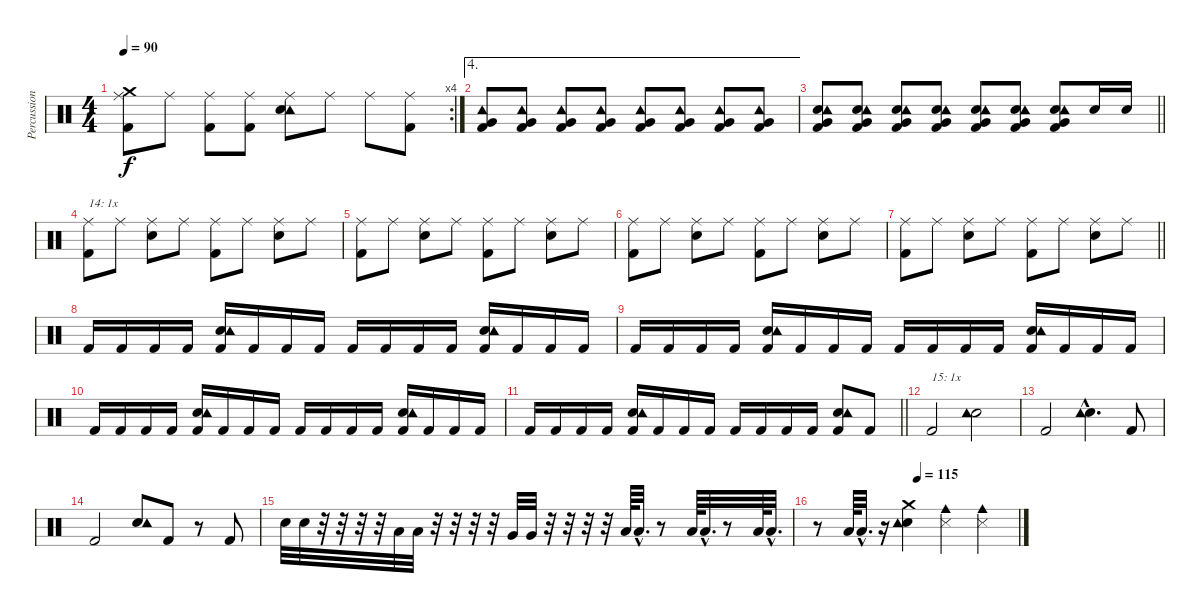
\track ("Percussion" "Percussion") {instrument percussion}
\staff {score}
\articulation defaults
\rc 4
\ts (4 4)
\tempo 90
\clef neutral
\ks c
("Crash medium (hit)" "Kick (hit) 2" "Ride (middle)").8{dy f} "Ride (middle)".8 ("Ride (middle)" "Kick (hit) 2").8 ("Ride (middle)" "Kick (hit) 2").8 ("Tambourine (hit)" "Electric Snare (hit)" "Ride (middle)").8 "Ride (middle)".8 "Ride (middle)".8 ("Kick (hit) 2" "Ride (middle)").8 |
\ae 4
("Kick (hit) 2" "Very Low Tom (hit)" "Tambourine (hit)").8 ("Kick (hit) 2" "Very Low Tom (hit)" "Tambourine (hit)").8 ("Kick (hit) 2" "Very Low Tom (hit)" "Tambourine (hit)").8 ("Kick (hit) 2" "Very Low Tom (hit)" "Tambourine (hit)").8 ("Kick (hit) 2" "Very Low Tom (hit)" "Tambourine (hit)").8 ("Kick (hit) 2" "Very Low Tom (hit)" "Tambourine (hit)").8 ("Kick (hit) 2" "Very Low Tom (hit)" "Tambourine (hit)").8 ("Kick (hit) 2" "Very Low Tom (hit)" "Tambourine (hit)").8 |
\barLineRight lightlight
("Very Low Tom (hit)" "Kick (hit) 2" "Electric Snare (hit)" "Tambourine (hit)").8 ("Very Low Tom (hit)" "Kick (hit) 2" "Electric Snare (hit)" "Tambourine (hit)").8 ("Very Low Tom (hit)" "Kick (hit) 2" "Electric Snare (hit)" "Tambourine (hit)").8 ("Very Low Tom (hit)" "Kick (hit) 2" "Electric Snare (hit)" "Tambourine (hit)").8 ("Very Low Tom (hit)" "Kick (hit) 2" "Electric Snare (hit)" "Tambourine (hit)").8 ("Very Low Tom (hit)" "Kick (hit) 2" "Electric Snare (hit)" "Tambourine (hit)").8 ("Very Low Tom (hit)" "Kick (hit) 2" "Electric Snare (hit)" "Tambourine (hit)").8 "Electric Snare (hit)".16 "Electric Snare (hit)".16 |
("Kick (hit) 2" "Ride (middle)").8{txt "14: 1x"} "Ride (middle)".8 ("Electric Snare (hit)" "Ride (middle)").8 "Ride (middle)".8 ("Kick (hit) 2" "Ride (middle)").8 "Ride (middle)".8 ("Electric Snare (hit)" "Ride (middle)").8 "Ride (middle)".8 |
("Kick (hit) 2" "Ride (middle)").8 "Ride (middle)".8 ("Electric Snare (hit)" "Ride (middle)").8 "Ride (middle)".8 ("Kick (hit) 2" "Ride (middle)").8 "Ride (middle)".8 ("Electric Snare (hit)" "Ride (middle)").8 "Ride (middle)".8 |
("Kick (hit) 2" "Ride (middle)").8 "Ride (middle)".8 ("Electric Snare (hit)" "Ride (middle)").8 "Ride (middle)".8 ("Kick (hit) 2" "Ride (middle)").8 "Ride (middle)".8 ("Electric Snare (hit)" "Ride (middle)").8 "Ride (middle)".8 |
\barLineRight lightlight
("Kick (hit) 2" "Ride (middle)").8 "Ride (middle)".8 ("Electric Snare (hit)" "Ride (middle)").8 "Ride (middle)".8 ("Kick (hit) 2" "Ride (middle)").8 "Ride (middle)".8 ("Electric Snare (hit)" "Ride (middle)").8 "Ride (middle)".8 |
"Kick (hit) 2".16 "Kick (hit) 2".16 "Kick (hit) 2".16 "Kick (hit) 2".16 ("Kick (hit) 2" "Electric Snare (hit)" "Tambourine (hit)").16 "Kick (hit) 2".16 "Kick (hit) 2".16 "Kick (hit) 2".16 "Kick (hit) 2".16 "Kick (hit) 2".16 "Kick (hit) 2".16 "Kick (hit) 2".16 ("Kick (hit) 2" "Electric Snare (hit)" "Tambourine (hit)").16 "Kick (hit) 2".16 "Kick (hit) 2".16 "Kick (hit) 2".16 |
"Kick (hit) 2".16 "Kick (hit) 2".16 "Kick (hit) 2".16 "Kick (hit) 2".16 ("Kick (hit) 2" "Electric Snare (hit)" "Tambourine (hit)").16 "Kick (hit) 2".16 "Kick (hit) 2".16 "Kick (hit) 2".16 "Kick (hit) 2".16 "Kick (hit) 2".16 "Kick (hit) 2".16 "Kick (hit) 2".16 ("Kick (hit) 2" "Electric Snare (hit)" "Tambourine (hit)").16 "Kick (hit) 2".16 "Kick (hit) 2".16 "Kick (hit) 2".16 |
"Kick (hit) 2".16 "Kick (hit) 2".16 "Kick (hit) 2".16 "Kick (hit) 2".16 ("Kick (hit) 2" "Electric Snare (hit)" "Tambourine (hit)").16 "Kick (hit) 2".16 "Kick (hit) 2".16 "Kick (hit) 2".16 "Kick (hit) 2".16 "Kick (hit) 2".16 "Kick (hit) 2".16 "Kick (hit) 2".16 ("Kick (hit) 2" "Electric Snare (hit)" "Tambourine (hit)").16 "Kick (hit) 2".16 "Kick (hit) 2".16 "Kick (hit) 2".16 |
\barLineRight lightlight "Kick (hit) 2".16 "Kick (hit) 2".16 "Kick (hit) 2".16 "Kick (hit) 2".16
("Kick (hit) 2" "Electric Snare (hit)" "Tambourine (hit)").16 "Kick (hit) 2".16 "Kick (hit) 2".16 "Kick (hit) 2".16 "Kick (hit) 2".16 "Kick (hit) 2".16 "Kick (hit) 2".16 "Kick (hit) 2".16 ("Kick (hit) 2" "Electric Snare (hit)" "Tambourine (hit)").8 "Kick (hit) 2".8 |
"Kick (hit) 2".2{txt "15: 1x"} ("Electric Snare (hit)" "Tambourine (hit)").2 |
"Kick (hit) 2".2 ("Electric Snare (hit)"{hac} "Tambourine (hit)"{hac}).4{d} "Kick (hit) 2".8 |
"Kick (hit) 2".2 ("Electric Snare (hit)" "Tambourine (hit)").8 "Kick (hit) 2".8 r.8 "Kick (hit) 2".8 |
"Electric Snare (hit)".32 "Electric Snare (hit)".32 r.32 r.32 r.32 r.32 "Low Tom (hit)".32 "Low Tom (hit)".32 r.32 r.32 r.32 r.32 "Very Low Tom (hit)".32 "Very Low Tom (hit)".32 r.32 r.32 r.32 r.32 "Low Floor Tom (hit)".64 "Low Floor Tom (hit)"{hac}.32{d} r.8 "Low Floor Tom (hit)".64 "Low Floor Tom (hit)"{hac}.32{d} r.8 "Low Floor Tom (hit)".64 "Low Floor Tom (hit)"{hac}.32{d} |
\tempo (115 0.5)
r.8 "Low Floor Tom (hit)".64 "Low Floor Tom (hit)"{hac}.32{d} r.16 ("Electric Snare (hit)" "Tambourine (hit)" "Crash medium (hit)").4 ("Cowbell medium (hit)" "Snare (side stick) 3").4 ("Cowbell medium (hit)" "Snare (side stick) 3").4
